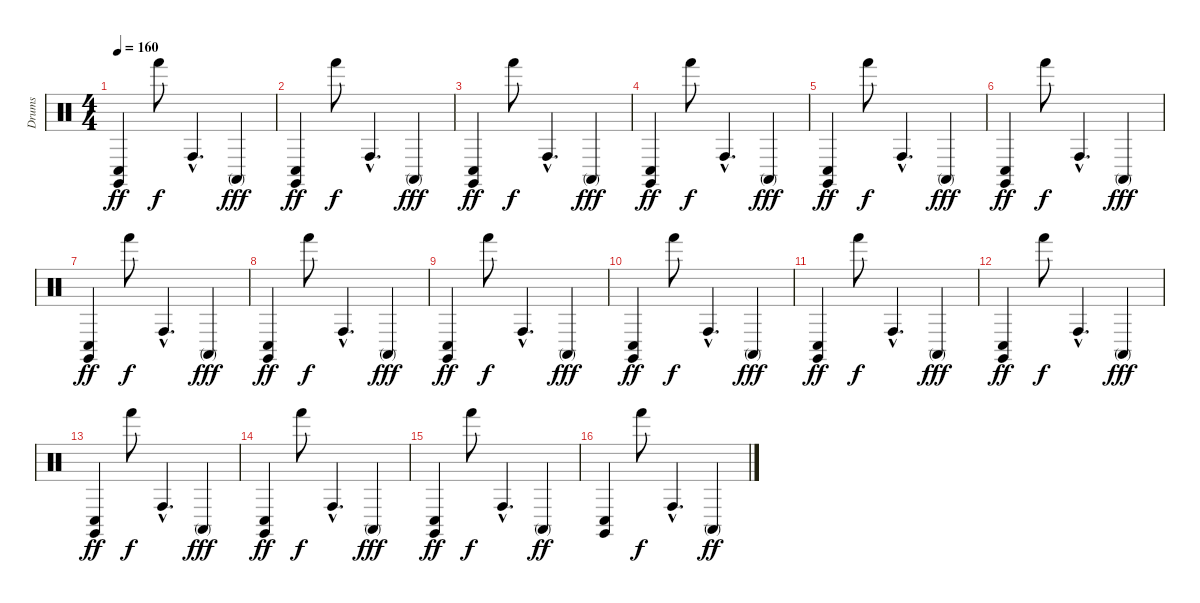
\track ("Drums" "Drums") {instrument percussion}
\staff {score}
\articulation defaults
\ts (4 4)
\tempo 160
\clef neutral
\ks c
("Claves (hit)" "Conga low (hit)").4{dy ff} "Hand (hit)".8{dy f} "Conga high (hit)"{hac}.4{d} "Conga high (mute)".4{dy fff} |
("Claves (hit)" "Conga low (hit)").4{dy ff} "Hand (hit)".8{dy f} "Conga high (hit)"{hac}.4{d} "Conga high (mute)".4{dy fff} |
("Claves (hit)" "Conga low (hit)").4{dy ff} "Hand (hit)".8{dy f} "Conga high (hit)"{hac}.4{d} "Conga high (mute)".4{dy fff} |
("Claves (hit)" "Conga low (hit)").4{dy ff} "Hand (hit)".8{dy f} "Conga high (hit)"{hac}.4{d} "Conga high (mute)".4{dy fff} |
("Claves (hit)" "Conga low (hit)").4{dy ff} "Hand (hit)".8{dy f} "Conga high (hit)"{hac}.4{d} "Conga high (mute)".4{dy fff} |
("Claves (hit)" "Conga low (hit)").4{dy ff} "Hand (hit)".8{dy f} "Conga high (hit)"{hac}.4{d} "Conga high (mute)".4{dy fff} |
("Claves (hit)" "Conga low (hit)").4{dy ff} "Hand (hit)".8{dy f} "Conga high (hit)"{hac}.4{d} "Conga high (mute)".4{dy fff} |
("Claves (hit)" "Conga low (hit)").4{dy ff} "Hand (hit)".8{dy f} "Conga high (hit)"{hac}.4{d} "Conga high (mute)".4{dy fff} |
("Claves (hit)" "Conga low (hit)").4{dy ff} "Hand (hit)".8{dy f} "Conga high (hit)"{hac}.4{d} "Conga high (mute)".4{dy fff} |
("Claves (hit)" "Conga low (hit)").4{dy ff} "Hand (hit)".8{dy f} "Conga high (hit)"{hac}.4{d} "Conga high (mute)".4{dy fff} |
("Claves (hit)" "Conga low (hit)").4{dy ff} "Hand (hit)".8{dy f} "Conga high (hit)"{hac}.4{d} "Conga high (mute)".4{dy fff} |
("Claves (hit)" "Conga low (hit)").4{dy ff} "Hand (hit)".8{dy f} "Conga high (hit)"{hac}.4{d} "Conga high (mute)".4{dy fff} |
("Claves (hit)" "Conga low (hit)").4{dy ff} "Hand (hit)".8{dy f} "Conga high (hit)"{hac}.4{d} "Conga high (mute)".4{dy fff} |
("Claves (hit)" "Conga low (hit)").4{dy ff} "Hand (hit)".8{dy f} "Conga high (hit)"{hac}.4{d} "Conga high (mute)".4{dy fff} |
("Claves (hit)" "Conga low (hit)").4{dy ff} "Hand (hit)".8{dy f} "Conga high (hit)"{hac}.4{d} "Conga high (mute)".4{dy ff} |
("Claves (hit)" "Conga low (hit)").4 "Hand (hit)".8{dy f} "Conga high (hit)"{hac}.4{d} "Conga high (mute)".4{dy ff}
